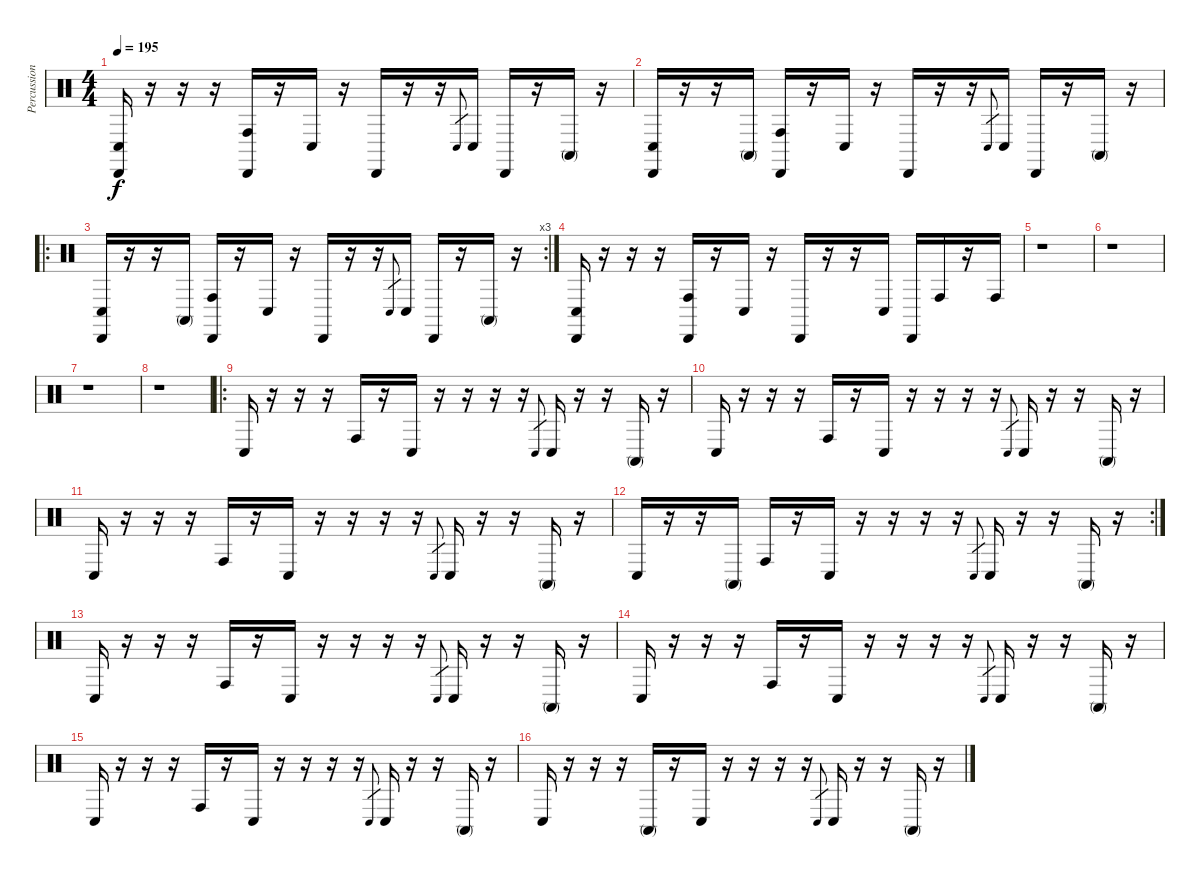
\track ("Percussion" "Percussion") {instrument percussion}
\staff {score}
\articulation defaults
\ts (4 4)
\tempo 195
\clef neutral
\ks c
("Conga low (hit)" "Cabasa (hit)").16{dy f} r.16 r.16 r.16 ("Conga high (hit)" "Cabasa (hit)").16 r.16 "Conga low (hit)".16 r.16 "Cabasa (hit)".16 r.16 r.16 "Conga low (hit)".8{gr} "Conga low (hit)".16 "Cabasa (hit)".16 r.16 "Conga high (mute)".16 r.16 |
("Conga low (hit)" "Cabasa (hit)").16 r.16 r.16 "Conga high (mute)".16 ("Conga high (hit)" "Cabasa (hit)").16 r.16 "Conga low (hit)".16 r.16 "Cabasa (hit)".16 r.16 r.16 "Conga low (hit)".8{gr} "Conga low (hit)".16 "Cabasa (hit)".16 r.16 "Conga high (mute)".16 r.16 |
\ro
\rc 3
("Conga low (hit)" "Cabasa (hit)").16 r.16 r.16 "Conga high (mute)".16 ("Conga high (hit)" "Cabasa (hit)").16 r.16 "Conga low (hit)".16 r.16 "Cabasa (hit)".16 r.16 r.16 "Conga low (hit)".8{gr} "Conga low (hit)".16 "Cabasa (hit)".16 r.16 "Conga high (mute)".16 r.16 |
("Conga low (hit)" "Cabasa (hit)").16 r.16 r.16 r.16 ("Conga high (hit)" "Cabasa (hit)").16 r.16 "Conga low (hit)".16 r.16 "Cabasa (hit)".16 r.16 r.16 "Conga low (hit)".16 "Cabasa (hit)".16 "Conga high (hit)".16 r.16 "Conga high (hit)".16 |
r.1 |
r.1 |
r.1 |
r.1 |
\ro "Conga low (hit)".16
r.16 r.16 r.16 "Conga high (hit)".16 r.16 "Conga low (hit)".16 r.16 r.16 r.16 r.16 "Conga low (hit)".8{gr} "Conga low (hit)".16 r.16 r.16 "Conga high (mute)".16 r.16 |
"Conga low (hit)".16 r.16 r.16 r.16 "Conga high (hit)".16 r.16 "Conga low (hit)".16 r.16 r.16 r.16 r.16 "Conga low (hit)".8{gr} "Conga low (hit)".16 r.16 r.16 "Conga high (mute)".16 r.16 |
"Conga low (hit)".16 r.16 r.16 r.16 "Conga high (hit)".16 r.16 "Conga low (hit)".16 r.16 r.16 r.16 r.16 "Conga low (hit)".8{gr} "Conga low (hit)".16 r.16 r.16 "Conga high (mute)".16 r.16 |
\rc 2 "Conga low (hit)".16
r.16 r.16 "Conga high (mute)".16 "Conga high (hit)".16 r.16 "Conga low (hit)".16 r.16 r.16 r.16 r.16 "Conga low (hit)".8{gr} "Conga low (hit)".16 r.16 r.16 "Conga high (mute)".16 r.16 |
"Conga low (hit)".16 r.16 r.16 r.16 "Conga high (hit)".16 r.16 "Conga low (hit)".16 r.16 r.16 r.16 r.16 "Conga low (hit)".8{gr} "Conga low (hit)".16 r.16 r.16 "Conga high (mute)".16 r.16 |
"Conga low (hit)".16 r.16 r.16 r.16 "Conga high (hit)".16 r.16 "Conga low (hit)".16 r.16 r.16 r.16 r.16 "Conga low (hit)".8{gr} "Conga low (hit)".16 r.16 r.16 "Conga high (mute)".16 r.16 |
"Conga low (hit)".16 r.16 r.16 r.16 "Conga high (hit)".16 r.16 "Conga low (hit)".16 r.16 r.16 r.16 r.16 "Conga low (hit)".8{gr} "Conga low (hit)".16 r.16 r.16 "Conga high (mute)".16 r.16 |
"Conga low (hit)".16 r.16 r.16 r.16 "Conga high (mute)".16 r.16 "Conga low (hit)".16 r.16 r.16 r.16 r.16 "Conga low (hit)".8{gr} "Conga low (hit)".16 r.16 r.16 "Conga high (mute)".16 r.16
